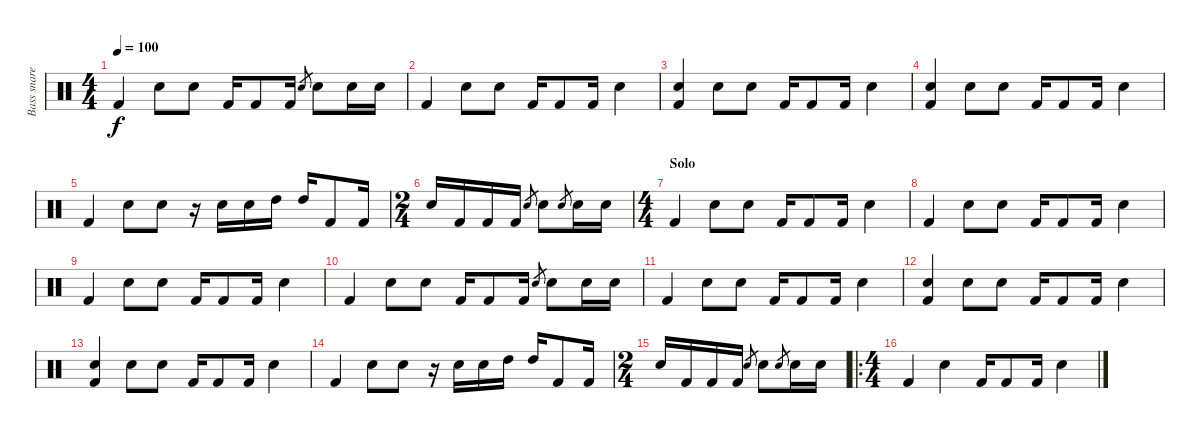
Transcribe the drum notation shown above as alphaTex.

\track ("Bass snare tom" "Bass snare") {instrument percussion}
\staff {score}
\articulation defaults
\ts (4 4)
\tempo 100
\clef neutral
\ks c "Kick (hit) 2".4{dy f} "Electric Snare (hit)".8 "Electric Snare (hit)".8 "Kick (hit) 2".16 "Kick (hit) 2".8 "Kick (hit) 2".16 "Electric Snare (hit)".8{gr} "Electric Snare (hit)".8 "Electric Snare (hit)".16 "Electric Snare (hit)".16
|
"Kick (hit) 2".4 "Electric Snare (hit)".8 "Electric Snare (hit)".8 "Kick (hit) 2".16 "Kick (hit) 2".8 "Kick (hit) 2".16 "Electric Snare (hit)".4 |
("Electric Snare (hit)" "Kick (hit) 2").4 "Electric Snare (hit)".8 "Electric Snare (hit)".8 "Kick (hit) 2".16 "Kick (hit) 2".8 "Kick (hit) 2".16 "Electric Snare (hit)".4 |
("Electric Snare (hit)" "Kick (hit) 2").4 "Electric Snare (hit)".8 "Electric Snare (hit)".8 "Kick (hit) 2".16 "Kick (hit) 2".8 "Kick (hit) 2".16 "Electric Snare (hit)".4 |
"Kick (hit) 2".4 "Electric Snare (hit)".8 "Electric Snare (hit)".8 r.16 "Electric Snare (hit)".16 "Electric Snare (hit)".16 "High Tom (hit)".16 "High Tom (hit)".16 "Kick (hit) 2".8 "Kick (hit) 2".16 |
\ts (2 4)
"Electric Snare (hit)".16 "Kick (hit) 2".16 "Kick (hit) 2".16 "Kick (hit) 2".16 "Electric Snare (hit)".8{gr} "Electric Snare (hit)".8 "Electric Snare (hit)".8{gr} "Electric Snare (hit)".16 "Electric Snare (hit)".16 |
\ts (4 4)
\section ("" "Solo")
"Kick (hit) 2".4 "Electric Snare (hit)".8 "Electric Snare (hit)".8 "Kick (hit) 2".16 "Kick (hit) 2".8 "Kick (hit) 2".16 "Electric Snare (hit)".4 |
"Kick (hit) 2".4 "Electric Snare (hit)".8 "Electric Snare (hit)".8 "Kick (hit) 2".16 "Kick (hit) 2".8 "Kick (hit) 2".16 "Electric Snare (hit)".4 |
"Kick (hit) 2".4 "Electric Snare (hit)".8 "Electric Snare (hit)".8 "Kick (hit) 2".16 "Kick (hit) 2".8 "Kick (hit) 2".16 "Electric Snare (hit)".4 |
"Kick (hit) 2".4 "Electric Snare (hit)".8 "Electric Snare (hit)".8 "Kick (hit) 2".16 "Kick (hit) 2".8 "Kick (hit) 2".16 "Electric Snare (hit)".8{gr} "Electric Snare (hit)".8 "Electric Snare (hit)".16 "Electric Snare (hit)".16 |
"Kick (hit) 2".4 "Electric Snare (hit)".8 "Electric Snare (hit)".8 "Kick (hit) 2".16 "Kick (hit) 2".8 "Kick (hit) 2".16 "Electric Snare (hit)".4 |
("Electric Snare (hit)" "Kick (hit) 2").4 "Electric Snare (hit)".8 "Electric Snare (hit)".8 "Kick (hit) 2".16 "Kick (hit) 2".8 "Kick (hit) 2".16 "Electric Snare (hit)".4 |
("Electric Snare (hit)" "Kick (hit) 2").4 "Electric Snare (hit)".8 "Electric Snare (hit)".8 "Kick (hit) 2".16 "Kick (hit) 2".8 "Kick (hit) 2".16 "Electric Snare (hit)".4 |
"Kick (hit) 2".4 "Electric Snare (hit)".8 "Electric Snare (hit)".8 r.16 "Electric Snare (hit)".16 "Electric Snare (hit)".16 "High Tom (hit)".16 "High Tom (hit)".16 "Kick (hit) 2".8 "Kick (hit) 2".16 |
\ts (2 4)
"Electric Snare (hit)".16 "Kick (hit) 2".16 "Kick (hit) 2".16 "Kick (hit) 2".16 "Electric Snare (hit)".8{gr} "Electric Snare (hit)".8 "Electric Snare (hit)".8{gr} "Electric Snare (hit)".16 "Electric Snare (hit)".16 |
\ro
\ts (4 4)
"Kick (hit) 2".4 "Electric Snare (hit)".4 "Kick (hit) 2".16 "Kick (hit) 2".8 "Kick (hit) 2".16 "Electric Snare (hit)".4
